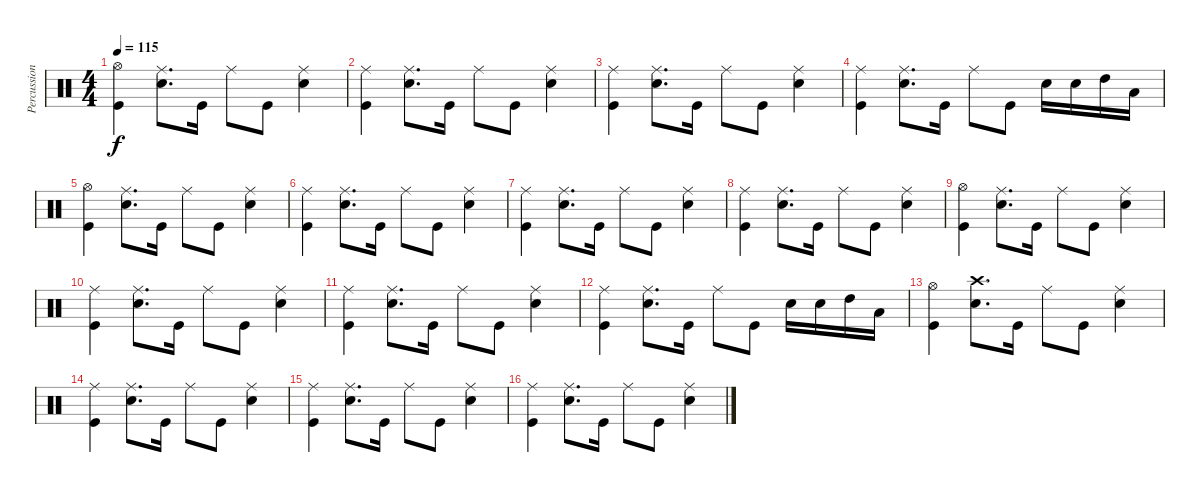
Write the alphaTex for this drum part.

\track ("Percussion 1" "Percussion") {instrument percussion}
\staff {score}
\articulation defaults
\ts (4 4)
\tempo 115
\clef neutral
\ks c
("Hi-Hat (open)" "Kick (hit)").4{dy f} ("Ride (middle)" "Snare (hit) 2").8{d} "Kick (hit)".16 "Ride (middle)".8 "Kick (hit)".8 ("Ride (middle)" "Snare (hit) 2").4 |
("Ride (middle)" "Kick (hit)").4 ("Ride (middle)" "Snare (hit) 2").8{d} "Kick (hit)".16 "Ride (middle)".8 "Kick (hit)".8 ("Ride (middle)" "Snare (hit) 2").4 |
("Ride (middle)" "Kick (hit)").4 ("Ride (middle)" "Snare (hit) 2").8{d} "Kick (hit)".16 "Ride (middle)".8 "Kick (hit)".8 ("Ride (middle)" "Snare (hit) 2").4 |
("Ride (middle)" "Kick (hit)").4 ("Ride (middle)" "Snare (hit) 2").8{d} "Kick (hit)".16 "Ride (middle)".8 "Kick (hit)".8 "Snare (hit) 2".16 "Snare (hit) 2".16 "High Tom (hit)".16 "Low Tom (hit)".16 |
("Hi-Hat (open)" "Kick (hit)").4 ("Ride (middle)" "Snare (hit) 2").8{d} "Kick (hit)".16 "Ride (middle)".8 "Kick (hit)".8 ("Ride (middle)" "Snare (hit) 2").4 |
("Ride (middle)" "Kick (hit)").4 ("Ride (middle)" "Snare (hit) 2").8{d} "Kick (hit)".16 "Ride (middle)".8 "Kick (hit)".8 ("Ride (middle)" "Snare (hit) 2").4 |
("Ride (middle)" "Kick (hit)").4 ("Ride (middle)" "Snare (hit) 2").8{d} "Kick (hit)".16 "Ride (middle)".8 "Kick (hit)".8 ("Ride (middle)" "Snare (hit) 2").4 |
("Ride (middle)" "Kick (hit)").4 ("Ride (middle)" "Snare (hit) 2").8{d} "Kick (hit)".16 "Ride (middle)".8 "Kick (hit)".8 ("Ride (middle)" "Snare (hit) 2").4 |
("Hi-Hat (open)" "Kick (hit)").4 ("Ride (middle)" "Snare (hit) 2").8{d} "Kick (hit)".16 "Ride (middle)".8 "Kick (hit)".8 ("Ride (middle)" "Snare (hit) 2").4 |
("Ride (middle)" "Kick (hit)").4 ("Ride (middle)" "Snare (hit) 2").8{d} "Kick (hit)".16 "Ride (middle)".8 "Kick (hit)".8 ("Ride (middle)" "Snare (hit) 2").4 |
("Ride (middle)" "Kick (hit)").4 ("Ride (middle)" "Snare (hit) 2").8{d} "Kick (hit)".16 "Ride (middle)".8 "Kick (hit)".8 ("Ride (middle)" "Snare (hit) 2").4 |
("Ride (middle)" "Kick (hit)").4 ("Ride (middle)" "Snare (hit) 2").8{d} "Kick (hit)".16 "Ride (middle)".8 "Kick (hit)".8 "Snare (hit) 2".16 "Snare (hit) 2".16 "High Tom (hit)".16 "Low Tom (hit)".16 |
("Hi-Hat (open)" "Kick (hit)").4 ("Crash high (hit)" "Snare (hit) 2").8{d} "Kick (hit)".16 "Ride (middle)".8 "Kick (hit)".8 ("Ride (middle)" "Snare (hit) 2").4 |
("Ride (middle)" "Kick (hit)").4 ("Ride (middle)" "Snare (hit) 2").8{d} "Kick (hit)".16 "Ride (middle)".8 "Kick (hit)".8 ("Ride (middle)" "Snare (hit) 2").4 |
("Ride (middle)" "Kick (hit)").4 ("Ride (middle)" "Snare (hit) 2").8{d} "Kick (hit)".16 "Ride (middle)".8 "Kick (hit)".8 ("Ride (middle)" "Snare (hit) 2").4 |
("Ride (middle)" "Kick (hit)").4 ("Ride (middle)" "Snare (hit) 2").8{d} "Kick (hit)".16 "Ride (middle)".8 "Kick (hit)".8 ("Ride (middle)" "Snare (hit) 2").4
